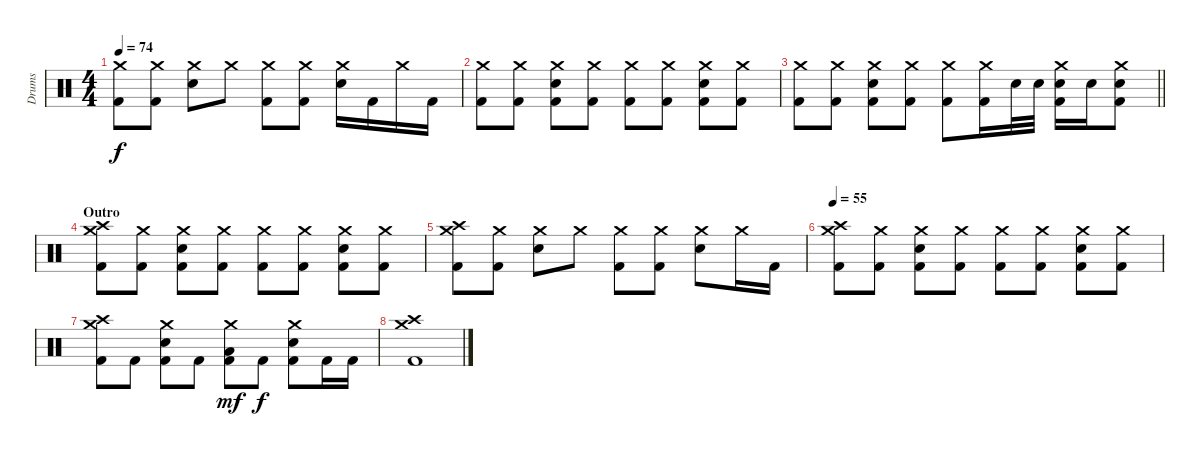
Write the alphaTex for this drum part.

\track ("Drums" "Drums") {instrument percussion}
\staff {score}
\articulation defaults
\ts (4 4)
\tempo 74
\clef neutral
\ks c
("Crash medium (hit)" "Kick (hit) 2").8{dy f} ("Crash medium (hit)" "Kick (hit) 2").8 ("Crash medium (hit)" "Snare (hit) 2").8 "Crash medium (hit)".8 ("Crash medium (hit)" "Kick (hit) 2").8 ("Crash medium (hit)" "Kick (hit) 2").8 ("Crash medium (hit)" "Snare (hit) 2").16 "Kick (hit) 2".16 "Crash medium (hit)".16 "Kick (hit) 2".16 |
("Crash medium (hit)" "Kick (hit) 2").8 ("Crash medium (hit)" "Kick (hit) 2").8 ("Crash medium (hit)" "Snare (hit) 2" "Kick (hit) 2").8 ("Crash medium (hit)" "Kick (hit) 2").8 ("Crash medium (hit)" "Kick (hit) 2").8 ("Crash medium (hit)" "Kick (hit) 2").8 ("Crash medium (hit)" "Snare (hit) 2" "Kick (hit) 2").8 ("Crash medium (hit)" "Kick (hit) 2").8 |
\barLineRight lightlight
("Crash medium (hit)" "Kick (hit) 2").8 ("Crash medium (hit)" "Kick (hit) 2").8 ("Crash medium (hit)" "Snare (hit) 2" "Kick (hit) 2").8 ("Crash medium (hit)" "Kick (hit) 2").8 ("Crash medium (hit)" "Kick (hit) 2").8 ("Crash medium (hit)" "Kick (hit) 2").16 "Snare (hit) 2".32 "Snare (hit) 2".32 ("Crash medium (hit)" "Snare (hit) 2" "Kick (hit) 2").16 "Snare (hit) 2".16 ("Crash medium (hit)" "Snare (hit) 2" "Kick (hit) 2").8 |
\section ("" "Outro")
("Crash high (hit)" "Crash medium (hit)" "Kick (hit) 2").8 ("Crash medium (hit)" "Kick (hit) 2").8 ("Crash medium (hit)" "Snare (hit) 2" "Kick (hit) 2").8 ("Crash medium (hit)" "Kick (hit) 2").8 ("Crash medium (hit)" "Kick (hit) 2").8 ("Crash medium (hit)" "Kick (hit) 2").8 ("Crash medium (hit)" "Snare (hit) 2" "Kick (hit) 2").8 ("Crash medium (hit)" "Kick (hit) 2").8 |
("Crash medium (hit)" "Crash high (hit)" "Kick (hit) 2").8 ("Crash medium (hit)" "Kick (hit) 2").8 ("Crash medium (hit)" "Snare (hit) 2").8 "Crash medium (hit)".8 ("Crash medium (hit)" "Kick (hit) 2").8 ("Crash medium (hit)" "Kick (hit) 2").8 ("Crash medium (hit)" "Snare (hit) 2").8 "Crash medium (hit)".16 "Kick (hit) 2".16 |
\tempo 55
("Crash high (hit)" "Crash medium (hit)" "Kick (hit) 2").8 ("Crash medium (hit)" "Kick (hit) 2").8 ("Crash medium (hit)" "Snare (hit) 2" "Kick (hit) 2").8 ("Crash medium (hit)" "Kick (hit) 2").8 ("Crash medium (hit)" "Kick (hit) 2").8 ("Crash medium (hit)" "Kick (hit) 2").8 ("Crash medium (hit)" "Snare (hit) 2" "Kick (hit) 2").8 ("Crash medium (hit)" "Kick (hit) 2").8 |
("Crash medium (hit)" "Crash high (hit)" "Kick (hit) 2").8 "Kick (hit) 2".8 ("Crash medium (hit)" "Snare (hit) 2" "Kick (hit) 2").8 "Kick (hit) 2".8 ("Crash medium (hit)" "Low Tom (hit)" "Kick (hit) 2").8{dy mf} "Kick (hit) 2".8{dy f} ("Crash medium (hit)" "Snare (hit) 2" "Kick (hit) 2").8 "Kick (hit) 2".16 "Kick (hit) 2".16 |
("Crash high (hit)" "Crash medium (hit)" "Kick (hit) 2").1
